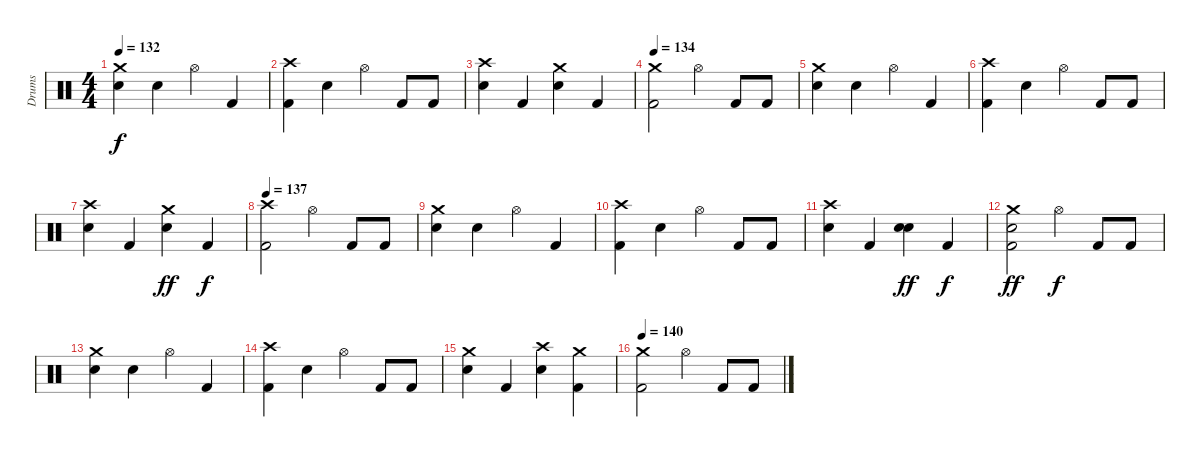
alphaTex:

\track ("Drums" "Drums") {instrument percussion}
\staff {score}
\articulation defaults
\ts (4 4)
\tempo 132
\clef neutral
\ks c
("Crash medium (hit)" "Electric Snare (hit)").4{dy f} "Electric Snare (hit)".4 "Hi-Hat (open)".4 "Kick (hit) 2".4 |
("Crash high (hit)" "Kick (hit) 2").4 "Electric Snare (hit)".4 "Hi-Hat (open)".4 "Kick (hit) 2".8 "Kick (hit) 2".8 |
("Crash high (hit)" "Electric Snare (hit)").4 "Kick (hit) 2".4 ("Crash medium (hit)" "Electric Snare (hit)").4 "Kick (hit) 2".4 |
\tempo 134
("Crash medium (hit)" "Kick (hit) 2").2 "Hi-Hat (open)".4 "Kick (hit) 2".8 "Kick (hit) 2".8 |
("Crash medium (hit)" "Electric Snare (hit)").4 "Electric Snare (hit)".4 "Hi-Hat (open)".4 "Kick (hit) 2".4 |
("Crash high (hit)" "Kick (hit) 2").4 "Electric Snare (hit)".4 "Hi-Hat (open)".4 "Kick (hit) 2".8 "Kick (hit) 2".8 |
("Crash high (hit)" "Electric Snare (hit)").4 "Kick (hit) 2".4 ("Crash medium (hit)" "Electric Snare (hit)").4{dy ff} "Kick (hit) 2".4{dy f} |
\tempo 137
("Crash high (hit)" "Kick (hit) 2").2 "Hi-Hat (open)".4 "Kick (hit) 2".8 "Kick (hit) 2".8 |
("Crash medium (hit)" "Electric Snare (hit)").4 "Electric Snare (hit)".4 "Hi-Hat (open)".4 "Kick (hit) 2".4 |
("Crash high (hit)" "Kick (hit) 2").4 "Electric Snare (hit)".4 "Hi-Hat (open)".4 "Kick (hit) 2".8 "Kick (hit) 2".8 |
("Crash high (hit)" "Electric Snare (hit)").4 "Kick (hit) 2".4 ("Electric Snare (hit)" "Electric Snare (hit)").4{bu 60 dy ff} "Kick (hit) 2".4{dy f} |
("Crash medium (hit)" "Electric Snare (hit)" "Kick (hit) 2").2{dy ff} "Hi-Hat (open)".4{dy f} "Kick (hit) 2".8 "Kick (hit) 2".8 |
("Crash medium (hit)" "Electric Snare (hit)").4 "Electric Snare (hit)".4 "Hi-Hat (open)".4 "Kick (hit) 2".4 |
("Crash high (hit)" "Kick (hit) 2").4 "Electric Snare (hit)".4 "Hi-Hat (open)".4 "Kick (hit) 2".8 "Kick (hit) 2".8 |
("Crash medium (hit)" "Electric Snare (hit)").4 "Kick (hit) 2".4 ("Crash high (hit)" "Electric Snare (hit)").4 ("Crash medium (hit)" "Kick (hit) 2").4 |
\tempo 140
("Crash medium (hit)" "Kick (hit) 2").2 "Hi-Hat (open)".4 "Kick (hit) 2".8 "Kick (hit) 2".8
